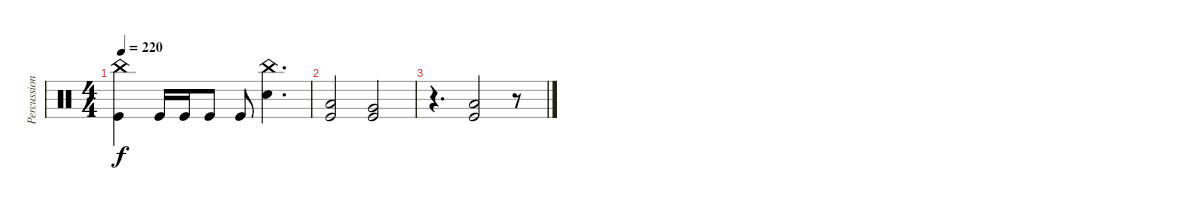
\track ("Percussion" "Percussion") {instrument percussion}
\staff {score}
\articulation defaults
\ts (4 4)
\tempo 220
\clef neutral
\ks c
("Kick (hit)" "China (hit)").4{dy f} "Kick (hit)".16 "Kick (hit)".16 "Kick (hit)".8 "Kick (hit)".8 ("Snare (hit) 2" "China (hit)").4{d} |
("Kick (hit)" "Low Tom (hit)").2 ("Kick (hit)" "Very Low Tom (hit)").2 |
r.4{d} ("Kick (hit)" "Low Floor Tom (hit)").2 r.8
